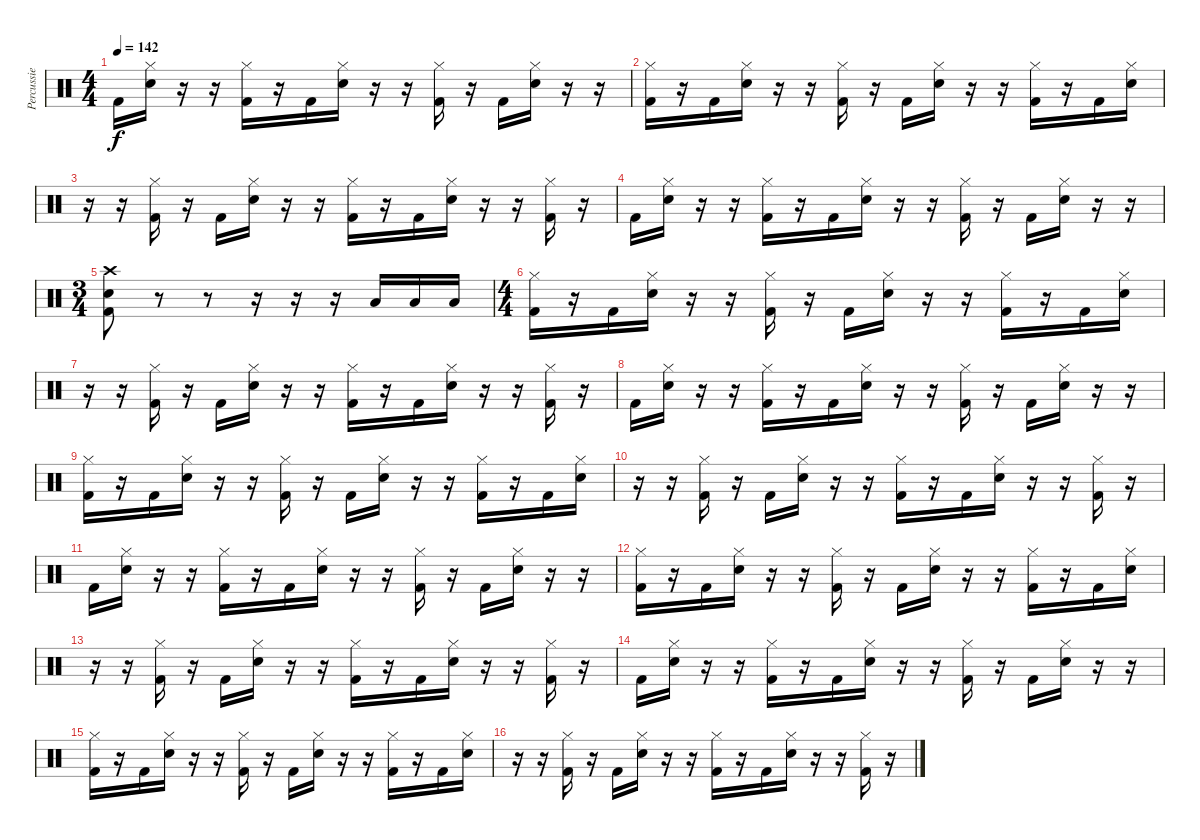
\track ("Percussie" "Percussie") {instrument percussion}
\staff {score}
\articulation defaults
\ts (4 4)
\tempo 142
\clef neutral
\ks c "Kick (hit) 2".16{dy f}
("Hi-Hat (closed)" "Snare (hit) 2").16 r.16 r.16 ("Hi-Hat (closed)" "Kick (hit) 2").16 r.16 "Kick (hit) 2".16 ("Hi-Hat (closed)" "Snare (hit) 2").16 r.16 r.16 ("Hi-Hat (closed)" "Kick (hit) 2").16 r.16 "Kick (hit) 2".16 ("Hi-Hat (closed)" "Snare (hit) 2").16 r.16 r.16 |
("Hi-Hat (closed)" "Kick (hit) 2").16 r.16 "Kick (hit) 2".16 ("Hi-Hat (closed)" "Snare (hit) 2").16 r.16 r.16 ("Hi-Hat (closed)" "Kick (hit) 2").16 r.16 "Kick (hit) 2".16 ("Hi-Hat (closed)" "Snare (hit) 2").16 r.16 r.16 ("Hi-Hat (closed)" "Kick (hit) 2").16 r.16 "Kick (hit) 2".16 ("Hi-Hat (closed)" "Snare (hit) 2").16 |
r.16 r.16 ("Hi-Hat (closed)" "Kick (hit) 2").16 r.16 "Kick (hit) 2".16 ("Hi-Hat (closed)" "Snare (hit) 2").16 r.16 r.16 ("Hi-Hat (closed)" "Kick (hit) 2").16 r.16 "Kick (hit) 2".16 ("Hi-Hat (closed)" "Snare (hit) 2").16 r.16 r.16 ("Hi-Hat (closed)" "Kick (hit) 2").16 r.16 |
"Kick (hit) 2".16 ("Hi-Hat (closed)" "Snare (hit) 2").16 r.16 r.16 ("Hi-Hat (closed)" "Kick (hit) 2").16 r.16 "Kick (hit) 2".16 ("Hi-Hat (closed)" "Snare (hit) 2").16 r.16 r.16 ("Hi-Hat (closed)" "Kick (hit) 2").16 r.16 "Kick (hit) 2".16 ("Hi-Hat (closed)" "Snare (hit) 2").16 r.16 r.16 |
\ts (3 4)
("Crash high (hit)" "Snare (hit) 2" "Kick (hit) 2").8 r.8 r.8 r.16 r.16 r.16 "Low Tom (hit)".16 "Low Tom (hit)".16 "Low Tom (hit)".16 |
\ts (4 4)
("Hi-Hat (closed)" "Kick (hit) 2").16 r.16 "Kick (hit) 2".16 ("Hi-Hat (closed)" "Snare (hit) 2").16 r.16 r.16 ("Hi-Hat (closed)" "Kick (hit) 2").16 r.16 "Kick (hit) 2".16 ("Hi-Hat (closed)" "Snare (hit) 2").16 r.16 r.16 ("Hi-Hat (closed)" "Kick (hit) 2").16 r.16 "Kick (hit) 2".16 ("Hi-Hat (closed)" "Snare (hit) 2").16 |
r.16 r.16 ("Hi-Hat (closed)" "Kick (hit) 2").16 r.16 "Kick (hit) 2".16 ("Hi-Hat (closed)" "Snare (hit) 2").16 r.16 r.16 ("Hi-Hat (closed)" "Kick (hit) 2").16 r.16 "Kick (hit) 2".16 ("Hi-Hat (closed)" "Snare (hit) 2").16 r.16 r.16 ("Hi-Hat (closed)" "Kick (hit) 2").16 r.16 |
"Kick (hit) 2".16 ("Hi-Hat (closed)" "Snare (hit) 2").16 r.16 r.16 ("Hi-Hat (closed)" "Kick (hit) 2").16 r.16 "Kick (hit) 2".16 ("Hi-Hat (closed)" "Snare (hit) 2").16 r.16 r.16 ("Hi-Hat (closed)" "Kick (hit) 2").16 r.16 "Kick (hit) 2".16 ("Hi-Hat (closed)" "Snare (hit) 2").16 r.16 r.16 |
("Hi-Hat (closed)" "Kick (hit) 2").16 r.16 "Kick (hit) 2".16 ("Hi-Hat (closed)" "Snare (hit) 2").16 r.16 r.16 ("Hi-Hat (closed)" "Kick (hit) 2").16 r.16 "Kick (hit) 2".16 ("Hi-Hat (closed)" "Snare (hit) 2").16 r.16 r.16 ("Hi-Hat (closed)" "Kick (hit) 2").16 r.16 "Kick (hit) 2".16 ("Hi-Hat (closed)" "Snare (hit) 2").16 |
r.16 r.16 ("Hi-Hat (closed)" "Kick (hit) 2").16 r.16 "Kick (hit) 2".16 ("Hi-Hat (closed)" "Snare (hit) 2").16 r.16 r.16 ("Hi-Hat (closed)" "Kick (hit) 2").16 r.16 "Kick (hit) 2".16 ("Hi-Hat (closed)" "Snare (hit) 2").16 r.16 r.16 ("Hi-Hat (closed)" "Kick (hit) 2").16 r.16 |
"Kick (hit) 2".16 ("Hi-Hat (closed)" "Snare (hit) 2").16 r.16 r.16 ("Hi-Hat (closed)" "Kick (hit) 2").16 r.16 "Kick (hit) 2".16 ("Hi-Hat (closed)" "Snare (hit) 2").16 r.16 r.16 ("Hi-Hat (closed)" "Kick (hit) 2").16 r.16 "Kick (hit) 2".16 ("Hi-Hat (closed)" "Snare (hit) 2").16 r.16 r.16 |
("Hi-Hat (closed)" "Kick (hit) 2").16 r.16 "Kick (hit) 2".16 ("Hi-Hat (closed)" "Snare (hit) 2").16 r.16 r.16 ("Hi-Hat (closed)" "Kick (hit) 2").16 r.16 "Kick (hit) 2".16 ("Hi-Hat (closed)" "Snare (hit) 2").16 r.16 r.16 ("Hi-Hat (closed)" "Kick (hit) 2").16 r.16 "Kick (hit) 2".16 ("Hi-Hat (closed)" "Snare (hit) 2").16 |
r.16 r.16 ("Hi-Hat (closed)" "Kick (hit) 2").16 r.16 "Kick (hit) 2".16 ("Hi-Hat (closed)" "Snare (hit) 2").16 r.16 r.16 ("Hi-Hat (closed)" "Kick (hit) 2").16 r.16 "Kick (hit) 2".16 ("Hi-Hat (closed)" "Snare (hit) 2").16 r.16 r.16 ("Hi-Hat (closed)" "Kick (hit) 2").16 r.16 |
"Kick (hit) 2".16 ("Hi-Hat (closed)" "Snare (hit) 2").16 r.16 r.16 ("Hi-Hat (closed)" "Kick (hit) 2").16 r.16 "Kick (hit) 2".16 ("Hi-Hat (closed)" "Snare (hit) 2").16 r.16 r.16 ("Hi-Hat (closed)" "Kick (hit) 2").16 r.16 "Kick (hit) 2".16 ("Hi-Hat (closed)" "Snare (hit) 2").16 r.16 r.16 |
("Hi-Hat (closed)" "Kick (hit) 2").16 r.16 "Kick (hit) 2".16 ("Hi-Hat (closed)" "Snare (hit) 2").16 r.16 r.16 ("Hi-Hat (closed)" "Kick (hit) 2").16 r.16 "Kick (hit) 2".16 ("Hi-Hat (closed)" "Snare (hit) 2").16 r.16 r.16 ("Hi-Hat (closed)" "Kick (hit) 2").16 r.16 "Kick (hit) 2".16 ("Hi-Hat (closed)" "Snare (hit) 2").16 |
r.16 r.16 ("Hi-Hat (closed)" "Kick (hit) 2").16 r.16 "Kick (hit) 2".16 ("Hi-Hat (closed)" "Snare (hit) 2").16 r.16 r.16 ("Hi-Hat (closed)" "Kick (hit) 2").16 r.16 "Kick (hit) 2".16 ("Hi-Hat (closed)" "Snare (hit) 2").16 r.16 r.16 ("Hi-Hat (closed)" "Kick (hit) 2").16 r.16
